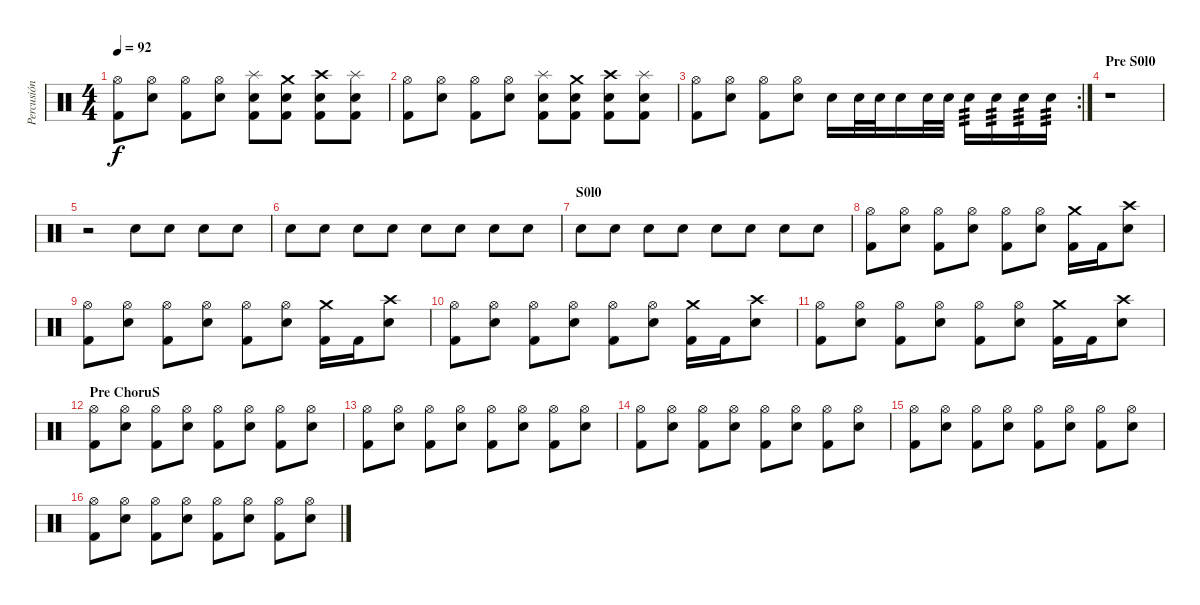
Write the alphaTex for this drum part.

\track ("Percusión" "Percusión") {instrument percussion}
\staff {score}
\articulation defaults
\ts (4 4)
\tempo 92
\clef neutral
\ks c
("Hi-Hat (open)" "Kick (hit) 2").8{dy f} ("Hi-Hat (open)" "Electric Snare (hit)").8 ("Hi-Hat (open)" "Kick (hit) 2").8 ("Hi-Hat (open)" "Electric Snare (hit)").8 ("Splash (hit)" "Electric Snare (hit)" "Kick (hit) 2").8 ("Crash medium (hit)" "Kick (hit) 2" "Electric Snare (hit)").8 ("Crash high (hit)" "Electric Snare (hit)" "Kick (hit) 2").8 ("Splash (hit)" "Kick (hit) 2" "Electric Snare (hit)").8 |
("Hi-Hat (open)" "Kick (hit) 2").8 ("Hi-Hat (open)" "Electric Snare (hit)").8 ("Hi-Hat (open)" "Kick (hit) 2").8 ("Hi-Hat (open)" "Electric Snare (hit)").8 ("Splash (hit)" "Electric Snare (hit)" "Kick (hit) 2").8 ("Crash medium (hit)" "Kick (hit) 2" "Electric Snare (hit)").8 ("Crash high (hit)" "Electric Snare (hit)" "Kick (hit) 2").8 ("Splash (hit)" "Kick (hit) 2" "Electric Snare (hit)").8 |
\rc 2
("Hi-Hat (open)" "Kick (hit) 2").8 ("Hi-Hat (open)" "Electric Snare (hit)").8 ("Hi-Hat (open)" "Kick (hit) 2").8 ("Hi-Hat (open)" "Electric Snare (hit)").8 "Electric Snare (hit)".16 "Electric Snare (hit)".32 "Electric Snare (hit)".32 "Electric Snare (hit)".16 "Electric Snare (hit)".32 "Electric Snare (hit)".32 "Electric Snare (hit)".16{tp 3} "Electric Snare (hit)".16{tp 3} "Electric Snare (hit)".16{tp 3} "Electric Snare (hit)".16{tp 3} |
\section ("" "Pre S0l0")
r.1 |
r.2 "Electric Snare (hit)".8 "Electric Snare (hit)".8 "Electric Snare (hit)".8 "Electric Snare (hit)".8 |
"Electric Snare (hit)".8 "Electric Snare (hit)".8 "Electric Snare (hit)".8 "Electric Snare (hit)".8 "Electric Snare (hit)".8 "Electric Snare (hit)".8 "Electric Snare (hit)".8 "Electric Snare (hit)".8 |
\section ("" "S0l0")
"Electric Snare (hit)".8 "Electric Snare (hit)".8 "Electric Snare (hit)".8 "Electric Snare (hit)".8 "Electric Snare (hit)".8 "Electric Snare (hit)".8 "Electric Snare (hit)".8 "Electric Snare (hit)".8 |
("Hi-Hat (open)" "Kick (hit) 2").8 ("Hi-Hat (open)" "Electric Snare (hit)").8 ("Hi-Hat (open)" "Kick (hit) 2").8 ("Hi-Hat (open)" "Electric Snare (hit)").8 ("Hi-Hat (open)" "Kick (hit) 2").8 ("Hi-Hat (open)" "Electric Snare (hit)").8 ("Crash medium (hit)" "Kick (hit) 2").16 "Kick (hit) 2".16 ("Crash high (hit)" "Electric Snare (hit)").8 |
("Hi-Hat (open)" "Kick (hit) 2").8 ("Hi-Hat (open)" "Electric Snare (hit)").8 ("Hi-Hat (open)" "Kick (hit) 2").8 ("Hi-Hat (open)" "Electric Snare (hit)").8 ("Hi-Hat (open)" "Kick (hit) 2").8 ("Hi-Hat (open)" "Electric Snare (hit)").8 ("Crash medium (hit)" "Kick (hit) 2").16 "Kick (hit) 2".16 ("Crash high (hit)" "Electric Snare (hit)").8 |
("Hi-Hat (open)" "Kick (hit) 2").8 ("Hi-Hat (open)" "Electric Snare (hit)").8 ("Hi-Hat (open)" "Kick (hit) 2").8 ("Hi-Hat (open)" "Electric Snare (hit)").8 ("Hi-Hat (open)" "Kick (hit) 2").8 ("Hi-Hat (open)" "Electric Snare (hit)").8 ("Crash medium (hit)" "Kick (hit) 2").16 "Kick (hit) 2".16 ("Crash high (hit)" "Electric Snare (hit)").8 |
("Hi-Hat (open)" "Kick (hit) 2").8 ("Hi-Hat (open)" "Electric Snare (hit)").8 ("Hi-Hat (open)" "Kick (hit) 2").8 ("Hi-Hat (open)" "Electric Snare (hit)").8 ("Hi-Hat (open)" "Kick (hit) 2").8 ("Hi-Hat (open)" "Electric Snare (hit)").8 ("Crash medium (hit)" "Kick (hit) 2").16 "Kick (hit) 2".16 ("Crash high (hit)" "Electric Snare (hit)").8 |
\section ("" "Pre ChoruS")
("Hi-Hat (open)" "Kick (hit) 2").8 ("Hi-Hat (open)" "Electric Snare (hit)").8 ("Hi-Hat (open)" "Kick (hit) 2").8 ("Hi-Hat (open)" "Electric Snare (hit)").8 ("Hi-Hat (open)" "Kick (hit) 2").8 ("Hi-Hat (open)" "Electric Snare (hit)").8 ("Hi-Hat (open)" "Kick (hit) 2").8 ("Hi-Hat (open)" "Electric Snare (hit)").8 |
("Hi-Hat (open)" "Kick (hit) 2").8 ("Hi-Hat (open)" "Electric Snare (hit)").8 ("Hi-Hat (open)" "Kick (hit) 2").8 ("Hi-Hat (open)" "Electric Snare (hit)").8 ("Hi-Hat (open)" "Kick (hit) 2").8 ("Hi-Hat (open)" "Electric Snare (hit)").8 ("Hi-Hat (open)" "Kick (hit) 2").8 ("Hi-Hat (open)" "Electric Snare (hit)").8 |
("Hi-Hat (open)" "Kick (hit) 2").8 ("Hi-Hat (open)" "Electric Snare (hit)").8 ("Hi-Hat (open)" "Kick (hit) 2").8 ("Hi-Hat (open)" "Electric Snare (hit)").8 ("Hi-Hat (open)" "Kick (hit) 2").8 ("Hi-Hat (open)" "Electric Snare (hit)").8 ("Hi-Hat (open)" "Kick (hit) 2").8 ("Hi-Hat (open)" "Electric Snare (hit)").8 |
("Hi-Hat (open)" "Kick (hit) 2").8 ("Hi-Hat (open)" "Electric Snare (hit)").8 ("Hi-Hat (open)" "Kick (hit) 2").8 ("Hi-Hat (open)" "Electric Snare (hit)").8 ("Hi-Hat (open)" "Kick (hit) 2").8 ("Hi-Hat (open)" "Electric Snare (hit)").8 ("Hi-Hat (open)" "Kick (hit) 2").8 ("Hi-Hat (open)" "Electric Snare (hit)").8 |
("Hi-Hat (open)" "Kick (hit) 2").8 ("Hi-Hat (open)" "Electric Snare (hit)").8 ("Hi-Hat (open)" "Kick (hit) 2").8 ("Hi-Hat (open)" "Electric Snare (hit)").8 ("Hi-Hat (open)" "Kick (hit) 2").8 ("Hi-Hat (open)" "Electric Snare (hit)").8 ("Hi-Hat (open)" "Kick (hit) 2").8 ("Hi-Hat (open)" "Electric Snare (hit)").8
